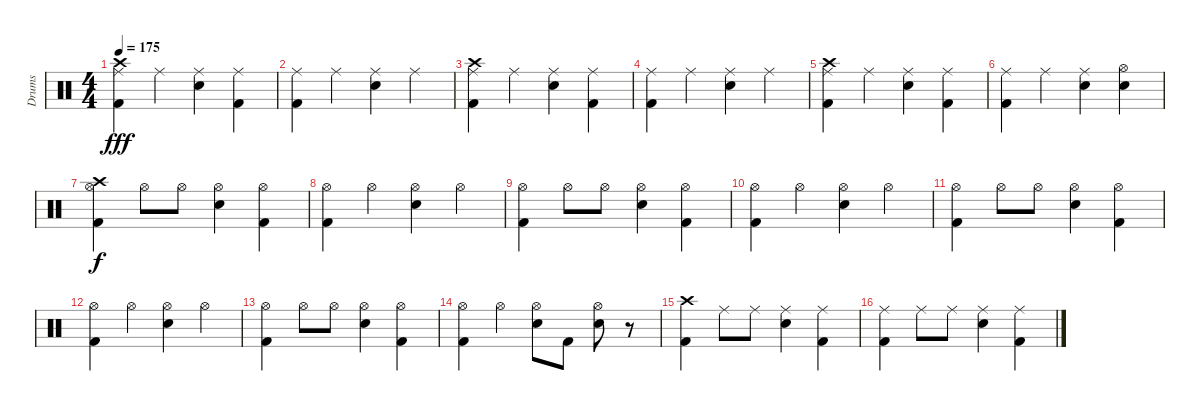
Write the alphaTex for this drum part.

\track ("Drums" "Drums") {instrument percussion}
\staff {score}
\articulation defaults
\ts (4 4)
\tempo 175
\clef neutral
\ks c
("Crash high (hit)" "Ride (middle)" "Kick (hit) 2").4{dy fff} "Ride (middle)".4 ("Ride (middle)" "Snare (hit) 2").4 ("Ride (middle)" "Kick (hit) 2").4 |
("Ride (middle)" "Kick (hit) 2").4 "Ride (middle)".4 ("Ride (middle)" "Snare (hit) 2").4 "Ride (middle)".4 |
("Crash high (hit)" "Ride (middle)" "Kick (hit) 2").4 "Ride (middle)".4 ("Ride (middle)" "Snare (hit) 2").4 ("Ride (middle)" "Kick (hit) 2").4 |
("Ride (middle)" "Kick (hit) 2").4 "Ride (middle)".4 ("Ride (middle)" "Snare (hit) 2").4 "Ride (middle)".4 |
("Crash high (hit)" "Ride (middle)" "Kick (hit) 2").4 "Ride (middle)".4 ("Ride (middle)" "Snare (hit) 2").4 ("Ride (middle)" "Kick (hit) 2").4 |
("Ride (middle)" "Kick (hit) 2").4 "Ride (middle)".4 ("Ride (middle)" "Snare (hit) 2").4 ("Hi-Hat (open)" "Snare (hit) 2").4 |
("Hi-Hat (open)" "Crash high (hit)" "Kick (hit) 2").4{dy f} "Hi-Hat (open)".8 "Hi-Hat (open)".8 ("Hi-Hat (open)" "Snare (hit) 2").4 ("Hi-Hat (open)" "Kick (hit) 2").4 |
("Hi-Hat (open)" "Kick (hit) 2").4 "Hi-Hat (open)".4 ("Hi-Hat (open)" "Snare (hit) 2").4 "Hi-Hat (open)".4 |
("Hi-Hat (open)" "Kick (hit) 2").4 "Hi-Hat (open)".8 "Hi-Hat (open)".8 ("Hi-Hat (open)" "Snare (hit) 2").4 ("Hi-Hat (open)" "Kick (hit) 2").4 |
("Hi-Hat (open)" "Kick (hit) 2").4 "Hi-Hat (open)".4 ("Hi-Hat (open)" "Snare (hit) 2").4 "Hi-Hat (open)".4 |
("Hi-Hat (open)" "Kick (hit) 2").4 "Hi-Hat (open)".8 "Hi-Hat (open)".8 ("Hi-Hat (open)" "Snare (hit) 2").4 ("Hi-Hat (open)" "Kick (hit) 2").4 |
("Hi-Hat (open)" "Kick (hit) 2").4 "Hi-Hat (open)".4 ("Hi-Hat (open)" "Snare (hit) 2").4 "Hi-Hat (open)".4 |
("Hi-Hat (open)" "Kick (hit) 2").4 "Hi-Hat (open)".8 "Hi-Hat (open)".8 ("Hi-Hat (open)" "Snare (hit) 2").4 ("Hi-Hat (open)" "Kick (hit) 2").4 |
("Hi-Hat (open)" "Kick (hit) 2").4 "Hi-Hat (open)".4 ("Hi-Hat (open)" "Snare (hit) 2").8 "Kick (hit) 2".8 ("Hi-Hat (open)"{pm} "Snare (hit) 2"{pm}).8 r.8 |
("Crash high (hit)" "Kick (hit) 2").4 "Ride (middle)".8 "Ride (middle)".8 ("Ride (middle)" "Snare (hit) 2").4 ("Ride (middle)" "Kick (hit) 2").4 |
("Ride (middle)" "Kick (hit) 2").4 "Ride (middle)".8 "Ride (middle)".8 ("Ride (middle)" "Snare (hit) 2").4 ("Ride (middle)" "Kick (hit) 2").4
